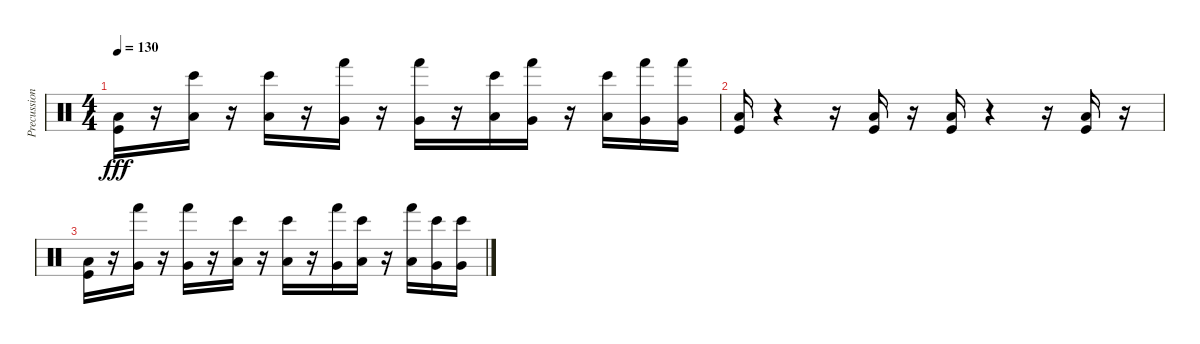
\track ("Precussion" "Precussion") {instrument percussion}
\staff {score}
\articulation defaults
\ts (4 4)
\tempo 130
\clef neutral
\ks c
("Kick (hit)" "Low Floor Tom (hit)").16{dy fff} r.16 ("Low Floor Tom (hit)" "Bongo High (hit)").16 r.16 ("Low Floor Tom (hit)" "Bongo High (hit)").16 r.16 ("Very Low Tom (hit)" "Hand (hit)").16 r.16 ("Very Low Tom (hit)" "Hand (hit)").16 r.16 ("Low Floor Tom (hit)" "Bongo High (hit)").16 ("Very Low Tom (hit)" "Hand (hit)").16 r.16 ("Low Floor Tom (hit)" "Bongo High (hit)").16 ("Very Low Tom (hit)" "Hand (hit)").16 ("Very Low Tom (hit)" "Hand (hit)").16 |
("Kick (hit)" "Low Floor Tom (hit)").16 r.4 r.16 ("Kick (hit)" "Low Floor Tom (hit)").16 r.16 ("Kick (hit)" "Low Floor Tom (hit)").16 r.4 r.16 ("Kick (hit)" "Low Floor Tom (hit)").16 r.16 |
("Kick (hit)" "Low Floor Tom (hit)").16 r.16 ("Hand (hit)" "Very Low Tom (hit)").16 r.16 ("Hand (hit)" "Very Low Tom (hit)").16 r.16 ("Bongo High (hit)" "Low Floor Tom (hit)").16 r.16 ("Bongo High (hit)" "Low Floor Tom (hit)").16 r.16 ("Hand (hit)" "Very Low Tom (hit)").16 ("Bongo High (hit)" "Low Floor Tom (hit)").16 r.16 ("Hand (hit)" "Low Floor Tom (hit)").16 ("Bongo High (hit)" "Very Low Tom (hit)").16 ("Bongo High (hit)" "Very Low Tom (hit)").16
